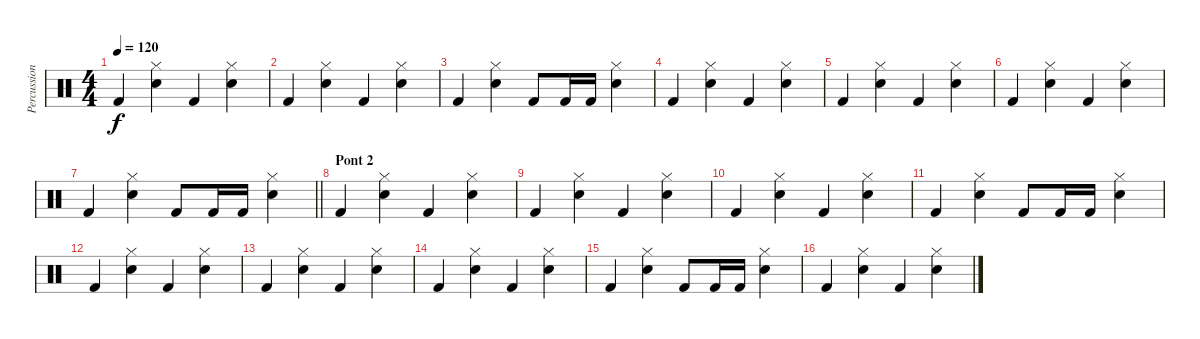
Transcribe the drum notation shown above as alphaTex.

\track ("Percussions" "Percussion") {instrument percussion}
\staff {score}
\articulation defaults
\ts (4 4)
\tempo 120
\clef neutral
\ks c "Kick (hit) 2".4{dy f}
("Hi-Hat (closed)" "Snare (hit) 2").4 "Kick (hit) 2".4 ("Hi-Hat (closed)" "Snare (hit) 2").4 |
"Kick (hit) 2".4 ("Hi-Hat (closed)" "Snare (hit) 2").4 "Kick (hit) 2".4 ("Hi-Hat (closed)" "Snare (hit) 2").4 |
"Kick (hit) 2".4 ("Hi-Hat (closed)" "Snare (hit) 2").4 "Kick (hit) 2".8 "Kick (hit) 2".16 "Kick (hit) 2".16 ("Hi-Hat (closed)" "Snare (hit) 2").4 |
"Kick (hit) 2".4 ("Hi-Hat (closed)" "Snare (hit) 2").4 "Kick (hit) 2".4 ("Hi-Hat (closed)" "Snare (hit) 2").4 |
"Kick (hit) 2".4 ("Hi-Hat (closed)" "Snare (hit) 2").4 "Kick (hit) 2".4 ("Hi-Hat (closed)" "Snare (hit) 2").4 |
"Kick (hit) 2".4 ("Hi-Hat (closed)" "Snare (hit) 2").4 "Kick (hit) 2".4 ("Hi-Hat (closed)" "Snare (hit) 2").4 |
\barLineRight lightlight "Kick (hit) 2".4
("Hi-Hat (closed)" "Snare (hit) 2").4 "Kick (hit) 2".8 "Kick (hit) 2".16 "Kick (hit) 2".16 ("Hi-Hat (closed)" "Snare (hit) 2").4 |
\section ("" "Pont 2")
"Kick (hit) 2".4 ("Hi-Hat (closed)" "Snare (hit) 2").4 "Kick (hit) 2".4 ("Hi-Hat (closed)" "Snare (hit) 2").4 |
"Kick (hit) 2".4 ("Hi-Hat (closed)" "Snare (hit) 2").4 "Kick (hit) 2".4 ("Hi-Hat (closed)" "Snare (hit) 2").4 |
"Kick (hit) 2".4 ("Hi-Hat (closed)" "Snare (hit) 2").4 "Kick (hit) 2".4 ("Hi-Hat (closed)" "Snare (hit) 2").4 |
"Kick (hit) 2".4 ("Hi-Hat (closed)" "Snare (hit) 2").4 "Kick (hit) 2".8 "Kick (hit) 2".16 "Kick (hit) 2".16 ("Hi-Hat (closed)" "Snare (hit) 2").4 |
"Kick (hit) 2".4 ("Hi-Hat (closed)" "Snare (hit) 2").4 "Kick (hit) 2".4 ("Hi-Hat (closed)" "Snare (hit) 2").4 |
"Kick (hit) 2".4 ("Hi-Hat (closed)" "Snare (hit) 2").4 "Kick (hit) 2".4 ("Hi-Hat (closed)" "Snare (hit) 2").4 |
"Kick (hit) 2".4 ("Hi-Hat (closed)" "Snare (hit) 2").4 "Kick (hit) 2".4 ("Hi-Hat (closed)" "Snare (hit) 2").4 |
"Kick (hit) 2".4 ("Hi-Hat (closed)" "Snare (hit) 2").4 "Kick (hit) 2".8 "Kick (hit) 2".16 "Kick (hit) 2".16 ("Hi-Hat (closed)" "Snare (hit) 2").4 |
"Kick (hit) 2".4 ("Hi-Hat (closed)" "Snare (hit) 2").4 "Kick (hit) 2".4 ("Hi-Hat (closed)" "Snare (hit) 2").4
